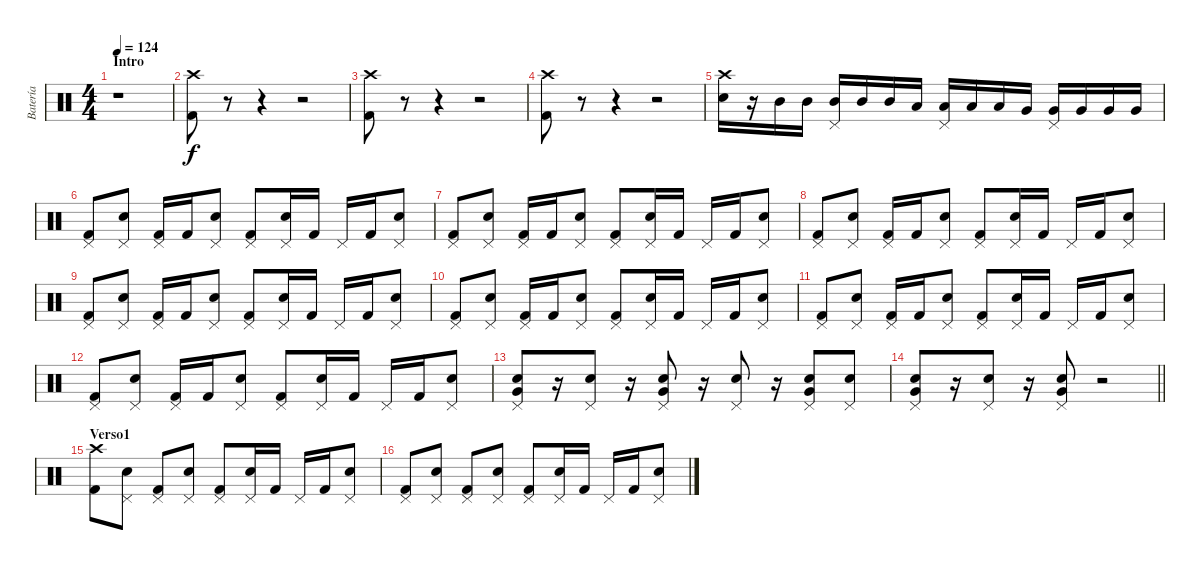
\track ("Batería" "Batería") {instrument percussion}
\staff {score}
\articulation defaults
\ts (4 4)
\section ("" "Intro")
\tempo 124
\clef neutral
\ks c
r.1{dy f} |
("Crash high (hit)" "Kick (hit) 2").8 r.8 r.4 r.2 |
("Crash high (hit)" "Kick (hit) 2").8 r.8 r.4 r.2 |
("Crash high (hit)" "Kick (hit) 2").8 r.8 r.4 r.2 |
("Crash high (hit)" "Snare (hit) 2").16 r.16 "Mid Tom (hit)".16 "Mid Tom (hit)".16 ("Pedal Hi-Hat (hit)" "Mid Tom (hit)").16 "Mid Tom (hit)".16 "Mid Tom (hit)".16 "Low Tom (hit)".16 ("Pedal Hi-Hat (hit)" "Low Tom (hit)").16 "Low Tom (hit)".16 "Low Tom (hit)".16 "Very Low Tom (hit)".16 ("Pedal Hi-Hat (hit)" "Very Low Tom (hit)").16 "Very Low Tom (hit)".16 "Very Low Tom (hit)".16 "Very Low Tom (hit)".16 |
("Pedal Hi-Hat (hit)" "Kick (hit) 2").8 ("Pedal Hi-Hat (hit)" "Snare (hit) 2").8 ("Pedal Hi-Hat (hit)" "Kick (hit) 2").16 "Kick (hit) 2".16 ("Pedal Hi-Hat (hit)" "Snare (hit) 2").8 ("Pedal Hi-Hat (hit)" "Kick (hit) 2").8 ("Pedal Hi-Hat (hit)" "Snare (hit) 2").16 "Kick (hit) 2".16 "Pedal Hi-Hat (hit)".16 "Kick (hit) 2".16 ("Pedal Hi-Hat (hit)" "Snare (hit) 2").8 |
("Pedal Hi-Hat (hit)" "Kick (hit) 2").8 ("Pedal Hi-Hat (hit)" "Snare (hit) 2").8 ("Pedal Hi-Hat (hit)" "Kick (hit) 2").16 "Kick (hit) 2".16 ("Pedal Hi-Hat (hit)" "Snare (hit) 2").8 ("Pedal Hi-Hat (hit)" "Kick (hit) 2").8 ("Pedal Hi-Hat (hit)" "Snare (hit) 2").16 "Kick (hit) 2".16 "Pedal Hi-Hat (hit)".16 "Kick (hit) 2".16 ("Pedal Hi-Hat (hit)" "Snare (hit) 2").8 |
("Pedal Hi-Hat (hit)" "Kick (hit) 2").8 ("Pedal Hi-Hat (hit)" "Snare (hit) 2").8 ("Pedal Hi-Hat (hit)" "Kick (hit) 2").16 "Kick (hit) 2".16 ("Pedal Hi-Hat (hit)" "Snare (hit) 2").8 ("Pedal Hi-Hat (hit)" "Kick (hit) 2").8 ("Pedal Hi-Hat (hit)" "Snare (hit) 2").16 "Kick (hit) 2".16 "Pedal Hi-Hat (hit)".16 "Kick (hit) 2".16 ("Pedal Hi-Hat (hit)" "Snare (hit) 2").8 |
("Pedal Hi-Hat (hit)" "Kick (hit) 2").8 ("Pedal Hi-Hat (hit)" "Snare (hit) 2").8 ("Pedal Hi-Hat (hit)" "Kick (hit) 2").16 "Kick (hit) 2".16 ("Pedal Hi-Hat (hit)" "Snare (hit) 2").8 ("Pedal Hi-Hat (hit)" "Kick (hit) 2").8 ("Pedal Hi-Hat (hit)" "Snare (hit) 2").16 "Kick (hit) 2".16 "Pedal Hi-Hat (hit)".16 "Kick (hit) 2".16 ("Pedal Hi-Hat (hit)" "Snare (hit) 2").8 |
("Pedal Hi-Hat (hit)" "Kick (hit) 2").8 ("Pedal Hi-Hat (hit)" "Snare (hit) 2").8 ("Pedal Hi-Hat (hit)" "Kick (hit) 2").16 "Kick (hit) 2".16 ("Pedal Hi-Hat (hit)" "Snare (hit) 2").8 ("Pedal Hi-Hat (hit)" "Kick (hit) 2").8 ("Pedal Hi-Hat (hit)" "Snare (hit) 2").16 "Kick (hit) 2".16 "Pedal Hi-Hat (hit)".16 "Kick (hit) 2".16 ("Pedal Hi-Hat (hit)" "Snare (hit) 2").8 |
("Pedal Hi-Hat (hit)" "Kick (hit) 2").8 ("Pedal Hi-Hat (hit)" "Snare (hit) 2").8 ("Pedal Hi-Hat (hit)" "Kick (hit) 2").16 "Kick (hit) 2".16 ("Pedal Hi-Hat (hit)" "Snare (hit) 2").8 ("Pedal Hi-Hat (hit)" "Kick (hit) 2").8 ("Pedal Hi-Hat (hit)" "Snare (hit) 2").16 "Kick (hit) 2".16 "Pedal Hi-Hat (hit)".16 "Kick (hit) 2".16 ("Pedal Hi-Hat (hit)" "Snare (hit) 2").8 |
("Pedal Hi-Hat (hit)" "Kick (hit) 2").8 ("Pedal Hi-Hat (hit)" "Snare (hit) 2").8 ("Pedal Hi-Hat (hit)" "Kick (hit) 2").16 "Kick (hit) 2".16 ("Pedal Hi-Hat (hit)" "Snare (hit) 2").8 ("Pedal Hi-Hat (hit)" "Kick (hit) 2").8 ("Pedal Hi-Hat (hit)" "Snare (hit) 2").16 "Kick (hit) 2".16 "Pedal Hi-Hat (hit)".16 "Kick (hit) 2".16 ("Pedal Hi-Hat (hit)" "Snare (hit) 2").8 |
("Very Low Tom (hit)" "Snare (hit) 2" "Pedal Hi-Hat (hit)").8 r.16 ("Snare (hit) 2" "Pedal Hi-Hat (hit)").8 r.16 ("Very Low Tom (hit)" "Snare (hit) 2" "Pedal Hi-Hat (hit)").8 r.16 ("Snare (hit) 2" "Pedal Hi-Hat (hit)").8 r.16 ("Very Low Tom (hit)" "Snare (hit) 2" "Pedal Hi-Hat (hit)").8 ("Snare (hit) 2" "Pedal Hi-Hat (hit)").8 |
\barLineRight lightlight
("Very Low Tom (hit)" "Snare (hit) 2" "Pedal Hi-Hat (hit)").8 r.16 ("Snare (hit) 2" "Pedal Hi-Hat (hit)").8 r.16 ("Very Low Tom (hit)" "Snare (hit) 2" "Pedal Hi-Hat (hit)").8 r.2 |
\section ("" "Verso1")
("Crash high (hit)" "Kick (hit) 2").8 ("Pedal Hi-Hat (hit)" "Snare (hit) 2").8 ("Pedal Hi-Hat (hit)" "Kick (hit) 2").8 ("Pedal Hi-Hat (hit)" "Snare (hit) 2").8 ("Pedal Hi-Hat (hit)" "Kick (hit) 2").8 ("Pedal Hi-Hat (hit)" "Snare (hit) 2").16 "Kick (hit) 2".16 "Pedal Hi-Hat (hit)".16 "Kick (hit) 2".16 ("Pedal Hi-Hat (hit)" "Snare (hit) 2").8 |
("Pedal Hi-Hat (hit)" "Kick (hit) 2").8 ("Pedal Hi-Hat (hit)" "Snare (hit) 2").8 ("Pedal Hi-Hat (hit)" "Kick (hit) 2").8 ("Pedal Hi-Hat (hit)" "Snare (hit) 2").8 ("Pedal Hi-Hat (hit)" "Kick (hit) 2").8 ("Pedal Hi-Hat (hit)" "Snare (hit) 2").16 "Kick (hit) 2".16 "Pedal Hi-Hat (hit)".16 "Kick (hit) 2".16 ("Pedal Hi-Hat (hit)" "Snare (hit) 2").8
